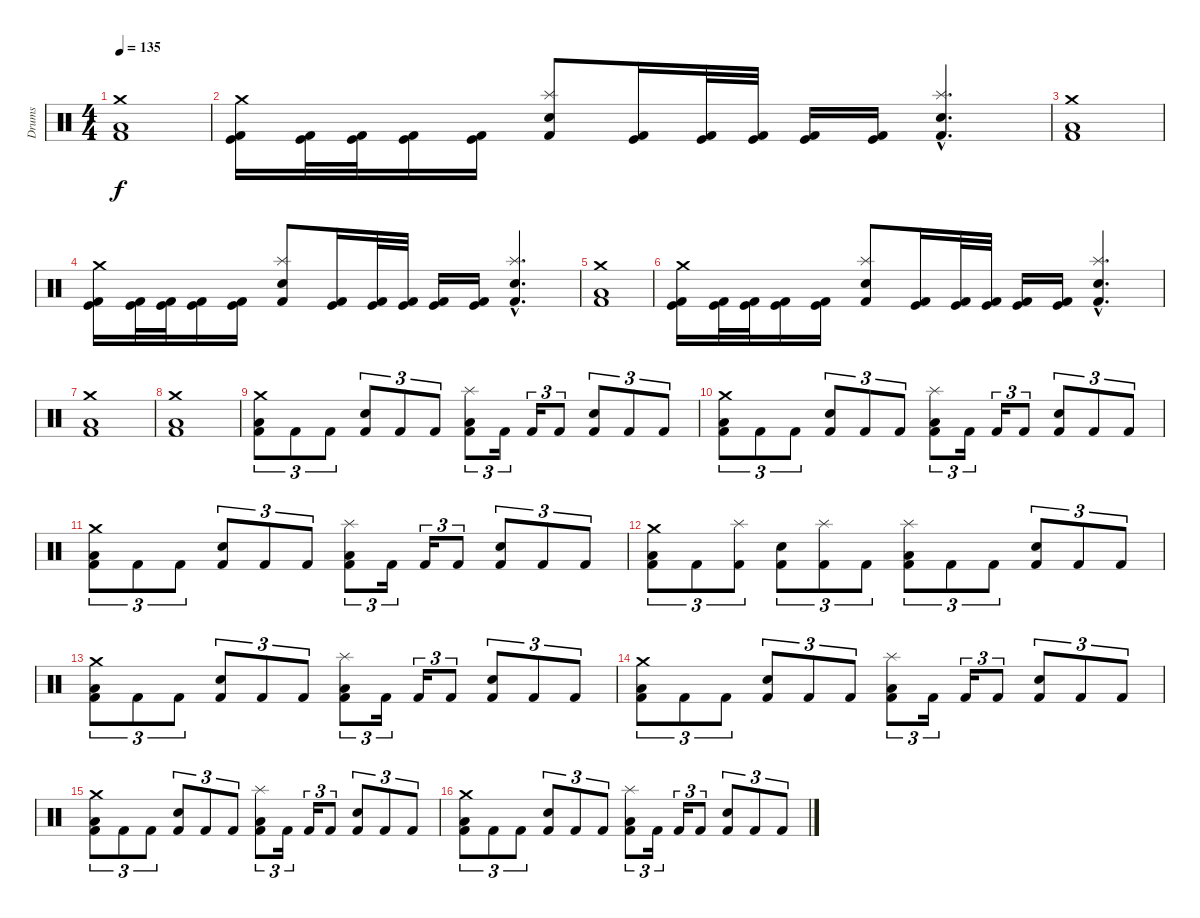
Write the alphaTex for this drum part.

\track ("Drums" "Drums") {instrument percussion}
\staff {score}
\articulation defaults
\ts (4 4)
\tempo 135
\clef neutral
\ks c
("Crash medium (hit)" "Low Floor Tom (hit)" "Kick (hit) 2").1{dy f} |
("Crash medium (hit)" "Kick (hit)" "Kick (hit) 2").16 ("Kick (hit)" "Kick (hit) 2").32 ("Kick (hit)" "Kick (hit) 2").32 ("Kick (hit)" "Kick (hit) 2").16 ("Kick (hit)" "Kick (hit) 2").16 ("Splash (hit)" "Snare (hit) 2" "Kick (hit) 2").8 ("Kick (hit)" "Kick (hit) 2").16 ("Kick (hit)" "Kick (hit) 2").32 ("Kick (hit)" "Kick (hit) 2").32 ("Kick (hit)" "Kick (hit) 2").16 ("Kick (hit)" "Kick (hit) 2").16 ("Splash (hit)"{hac} "Snare (hit) 2"{hac} "Kick (hit) 2"{hac}).4{d} |
("Crash medium (hit)" "Low Floor Tom (hit)" "Kick (hit) 2").1 |
("Crash medium (hit)" "Kick (hit)" "Kick (hit) 2").16 ("Kick (hit)" "Kick (hit) 2").32 ("Kick (hit)" "Kick (hit) 2").32 ("Kick (hit)" "Kick (hit) 2").16 ("Kick (hit)" "Kick (hit) 2").16 ("Splash (hit)" "Snare (hit) 2" "Kick (hit) 2").8 ("Kick (hit)" "Kick (hit) 2").16 ("Kick (hit)" "Kick (hit) 2").32 ("Kick (hit)" "Kick (hit) 2").32 ("Kick (hit)" "Kick (hit) 2").16 ("Kick (hit)" "Kick (hit) 2").16 ("Splash (hit)"{hac} "Snare (hit) 2"{hac} "Kick (hit) 2"{hac}).4{d} |
("Crash medium (hit)" "Low Floor Tom (hit)" "Kick (hit) 2").1 |
("Crash medium (hit)" "Kick (hit)" "Kick (hit) 2").16 ("Kick (hit)" "Kick (hit) 2").32 ("Kick (hit)" "Kick (hit) 2").32 ("Kick (hit)" "Kick (hit) 2").16 ("Kick (hit)" "Kick (hit) 2").16 ("Splash (hit)" "Snare (hit) 2" "Kick (hit) 2").8 ("Kick (hit)" "Kick (hit) 2").16 ("Kick (hit)" "Kick (hit) 2").32 ("Kick (hit)" "Kick (hit) 2").32 ("Kick (hit)" "Kick (hit) 2").16 ("Kick (hit)" "Kick (hit) 2").16 ("Splash (hit)"{hac} "Snare (hit) 2"{hac} "Kick (hit) 2"{hac}).4{d} |
("Crash medium (hit)" "Low Floor Tom (hit)" "Kick (hit) 2").1 |
("Crash medium (hit)" "Low Floor Tom (hit)" "Kick (hit) 2").1 |
("Crash medium (hit)" "Low Floor Tom (hit)" "Kick (hit) 2").8{tu (3 2)} "Kick (hit) 2".8{tu (3 2)} "Kick (hit) 2".8{tu (3 2)} ("Snare (hit) 2" "Kick (hit) 2").8{tu (3 2)} "Kick (hit) 2".8{tu (3 2)} "Kick (hit) 2".8{tu (3 2)} ("Splash (hit)" "Low Floor Tom (hit)" "Kick (hit) 2").8{tu (3 2)} "Kick (hit) 2".16{tu (3 2)} "Kick (hit) 2".16{tu (3 2)} "Kick (hit) 2".8{tu (3 2)} ("Snare (hit) 2" "Kick (hit) 2").8{tu (3 2)} "Kick (hit) 2".8{tu (3 2)} "Kick (hit) 2".8{tu (3 2)} |
("Crash medium (hit)" "Low Floor Tom (hit)" "Kick (hit) 2").8{tu (3 2)} "Kick (hit) 2".8{tu (3 2)} "Kick (hit) 2".8{tu (3 2)} ("Snare (hit) 2" "Kick (hit) 2").8{tu (3 2)} "Kick (hit) 2".8{tu (3 2)} "Kick (hit) 2".8{tu (3 2)} ("Splash (hit)" "Low Floor Tom (hit)" "Kick (hit) 2").8{tu (3 2)} "Kick (hit) 2".16{tu (3 2)} "Kick (hit) 2".16{tu (3 2)} "Kick (hit) 2".8{tu (3 2)} ("Snare (hit) 2" "Kick (hit) 2").8{tu (3 2)} "Kick (hit) 2".8{tu (3 2)} "Kick (hit) 2".8{tu (3 2)} |
("Crash medium (hit)" "Low Floor Tom (hit)" "Kick (hit) 2").8{tu (3 2)} "Kick (hit) 2".8{tu (3 2)} "Kick (hit) 2".8{tu (3 2)} ("Snare (hit) 2" "Kick (hit) 2").8{tu (3 2)} "Kick (hit) 2".8{tu (3 2)} "Kick (hit) 2".8{tu (3 2)} ("Splash (hit)" "Low Floor Tom (hit)" "Kick (hit) 2").8{tu (3 2)} "Kick (hit) 2".16{tu (3 2)} "Kick (hit) 2".16{tu (3 2)} "Kick (hit) 2".8{tu (3 2)} ("Snare (hit) 2" "Kick (hit) 2").8{tu (3 2)} "Kick (hit) 2".8{tu (3 2)} "Kick (hit) 2".8{tu (3 2)} |
("Crash medium (hit)" "Low Floor Tom (hit)" "Kick (hit) 2").8{tu (3 2)} "Kick (hit) 2".8{tu (3 2)} ("Splash (hit)" "Kick (hit) 2").8{tu (3 2)} ("Snare (hit) 2" "Kick (hit) 2").8{tu (3 2)} ("Splash (hit)" "Kick (hit) 2").8{tu (3 2)} "Kick (hit) 2".8{tu (3 2)} ("Splash (hit)" "Low Floor Tom (hit)" "Kick (hit) 2").8{tu (3 2)} "Kick (hit) 2".8{tu (3 2)} "Kick (hit) 2".8{tu (3 2)} ("Snare (hit) 2" "Kick (hit) 2").8{tu (3 2)} "Kick (hit) 2".8{tu (3 2)} "Kick (hit) 2".8{tu (3 2)} |
("Crash medium (hit)" "Low Floor Tom (hit)" "Kick (hit) 2").8{tu (3 2)} "Kick (hit) 2".8{tu (3 2)} "Kick (hit) 2".8{tu (3 2)} ("Snare (hit) 2" "Kick (hit) 2").8{tu (3 2)} "Kick (hit) 2".8{tu (3 2)} "Kick (hit) 2".8{tu (3 2)} ("Splash (hit)" "Low Floor Tom (hit)" "Kick (hit) 2").8{tu (3 2)} "Kick (hit) 2".16{tu (3 2)} "Kick (hit) 2".16{tu (3 2)} "Kick (hit) 2".8{tu (3 2)} ("Snare (hit) 2" "Kick (hit) 2").8{tu (3 2)} "Kick (hit) 2".8{tu (3 2)} "Kick (hit) 2".8{tu (3 2)} |
("Crash medium (hit)" "Low Floor Tom (hit)" "Kick (hit) 2").8{tu (3 2)} "Kick (hit) 2".8{tu (3 2)} "Kick (hit) 2".8{tu (3 2)} ("Snare (hit) 2" "Kick (hit) 2").8{tu (3 2)} "Kick (hit) 2".8{tu (3 2)} "Kick (hit) 2".8{tu (3 2)} ("Splash (hit)" "Low Floor Tom (hit)" "Kick (hit) 2").8{tu (3 2)} "Kick (hit) 2".16{tu (3 2)} "Kick (hit) 2".16{tu (3 2)} "Kick (hit) 2".8{tu (3 2)} ("Snare (hit) 2" "Kick (hit) 2").8{tu (3 2)} "Kick (hit) 2".8{tu (3 2)} "Kick (hit) 2".8{tu (3 2)} |
("Crash medium (hit)" "Low Floor Tom (hit)" "Kick (hit) 2").8{tu (3 2)} "Kick (hit) 2".8{tu (3 2)} "Kick (hit) 2".8{tu (3 2)} ("Snare (hit) 2" "Kick (hit) 2").8{tu (3 2)} "Kick (hit) 2".8{tu (3 2)} "Kick (hit) 2".8{tu (3 2)} ("Splash (hit)" "Low Floor Tom (hit)" "Kick (hit) 2").8{tu (3 2)} "Kick (hit) 2".16{tu (3 2)} "Kick (hit) 2".16{tu (3 2)} "Kick (hit) 2".8{tu (3 2)} ("Snare (hit) 2" "Kick (hit) 2").8{tu (3 2)} "Kick (hit) 2".8{tu (3 2)} "Kick (hit) 2".8{tu (3 2)} |
("Crash medium (hit)" "Low Floor Tom (hit)" "Kick (hit) 2").8{tu (3 2)} "Kick (hit) 2".8{tu (3 2)} "Kick (hit) 2".8{tu (3 2)} ("Snare (hit) 2" "Kick (hit) 2").8{tu (3 2)} "Kick (hit) 2".8{tu (3 2)} "Kick (hit) 2".8{tu (3 2)} ("Splash (hit)" "Low Floor Tom (hit)" "Kick (hit) 2").8{tu (3 2)} "Kick (hit) 2".16{tu (3 2)} "Kick (hit) 2".16{tu (3 2)} "Kick (hit) 2".8{tu (3 2)} ("Snare (hit) 2" "Kick (hit) 2").8{tu (3 2)} "Kick (hit) 2".8{tu (3 2)} "Kick (hit) 2".8{tu (3 2)}
